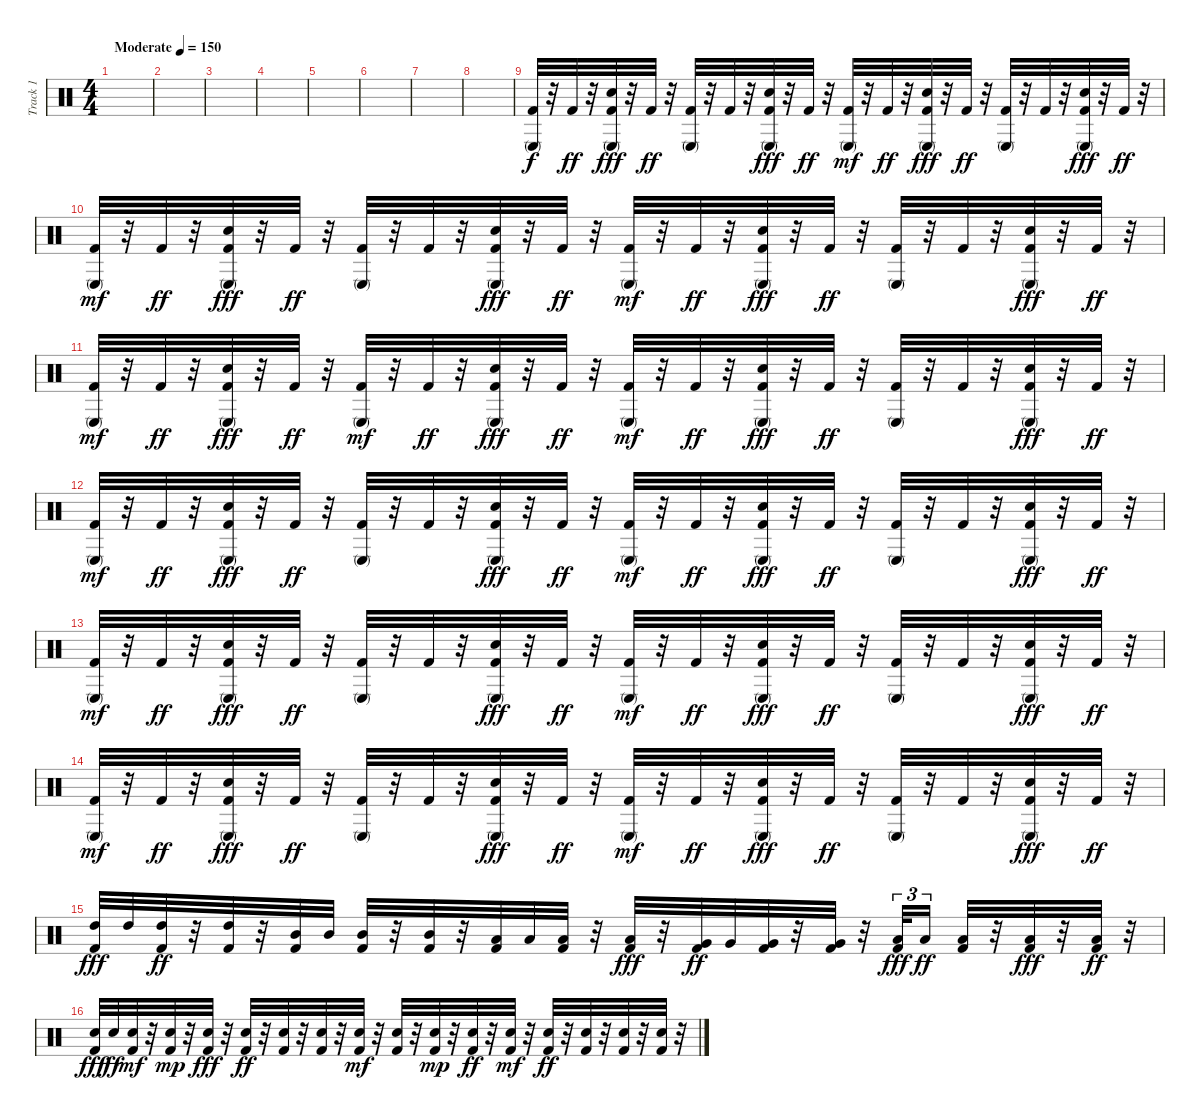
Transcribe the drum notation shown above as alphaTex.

\track ("Track 1" "Track 1") {instrument percussion}
\staff {score}
\articulation defaults
\ts (4 4)
\tempo (150 "Moderate")
\clef neutral
\ks c
|
|
|
|
|
|
|
|
("Kick (hit) 2" "Conga low (mute)").32 r.32 "Kick (hit) 2".32{dy ff} r.32 ("Kick (hit) 2" "Conga low (mute)" "Snare (hit) 2").32{dy fff} r.32 "Kick (hit) 2".32{dy ff} r.32 ("Conga low (mute)" "Kick (hit) 2").32 r.32 "Kick (hit) 2".32 r.32 ("Kick (hit) 2" "Conga low (mute)" "Snare (hit) 2").32{dy fff} r.32 "Kick (hit) 2".32{dy ff} r.32 ("Kick (hit) 2" "Conga low (mute)").32{dy mf} r.32 "Kick (hit) 2".32{dy ff} r.32 ("Kick (hit) 2" "Snare (hit) 2" "Conga low (mute)").32{dy fff} r.32 "Kick (hit) 2".32{dy ff} r.32 ("Conga low (mute)" "Kick (hit) 2").32 r.32 "Kick (hit) 2".32 r.32 ("Kick (hit) 2" "Conga low (mute)" "Snare (hit) 2").32{dy fff} r.32 "Kick (hit) 2".32{dy ff} r.32 |
("Kick (hit) 2" "Conga low (mute)").32{dy mf} r.32 "Kick (hit) 2".32{dy ff} r.32 ("Kick (hit) 2" "Snare (hit) 2" "Conga low (mute)").32{dy fff} r.32 "Kick (hit) 2".32{dy ff} r.32 ("Conga low (mute)" "Kick (hit) 2").32 r.32 "Kick (hit) 2".32 r.32 ("Kick (hit) 2" "Conga low (mute)" "Snare (hit) 2").32{dy fff} r.32 "Kick (hit) 2".32{dy ff} r.32 ("Kick (hit) 2" "Conga low (mute)").32{dy mf} r.32 "Kick (hit) 2".32{dy ff} r.32 ("Kick (hit) 2" "Snare (hit) 2" "Conga low (mute)").32{dy fff} r.32 "Kick (hit) 2".32{dy ff} r.32 ("Conga low (mute)" "Kick (hit) 2").32 r.32 "Kick (hit) 2".32 r.32 ("Kick (hit) 2" "Snare (hit) 2" "Conga low (mute)").32{dy fff} r.32 "Kick (hit) 2".32{dy ff} r.32 |
("Kick (hit) 2" "Conga low (mute)").32{dy mf} r.32 "Kick (hit) 2".32{dy ff} r.32 ("Kick (hit) 2" "Snare (hit) 2" "Conga low (mute)").32{dy fff} r.32 "Kick (hit) 2".32{dy ff} r.32 ("Kick (hit) 2" "Conga low (mute)").32{dy mf} r.32 "Kick (hit) 2".32{dy ff} r.32 ("Kick (hit) 2" "Snare (hit) 2" "Conga low (mute)").32{dy fff} r.32 "Kick (hit) 2".32{dy ff} r.32 ("Kick (hit) 2" "Conga low (mute)").32{dy mf} r.32 "Kick (hit) 2".32{dy ff} r.32 ("Snare (hit) 2" "Kick (hit) 2" "Conga low (mute)").32{dy fff} r.32 "Kick (hit) 2".32{dy ff} r.32 ("Conga low (mute)" "Kick (hit) 2").32 r.32 "Kick (hit) 2".32 r.32 ("Kick (hit) 2" "Snare (hit) 2" "Conga low (mute)").32{dy fff} r.32 "Kick (hit) 2".32{dy ff} r.32 |
("Kick (hit) 2" "Conga low (mute)").32{dy mf} r.32 "Kick (hit) 2".32{dy ff} r.32 ("Kick (hit) 2" "Conga low (mute)" "Snare (hit) 2").32{dy fff} r.32 "Kick (hit) 2".32{dy ff} r.32 ("Conga low (mute)" "Kick (hit) 2").32 r.32 "Kick (hit) 2".32 r.32 ("Kick (hit) 2" "Conga low (mute)" "Snare (hit) 2").32{dy fff} r.32 "Kick (hit) 2".32{dy ff} r.32 ("Kick (hit) 2" "Conga low (mute)").32{dy mf} r.32 "Kick (hit) 2".32{dy ff} r.32 ("Kick (hit) 2" "Snare (hit) 2" "Conga low (mute)").32{dy fff} r.32 "Kick (hit) 2".32{dy ff} r.32 ("Conga low (mute)" "Kick (hit) 2").32 r.32 "Kick (hit) 2".32 r.32 ("Kick (hit) 2" "Conga low (mute)" "Snare (hit) 2").32{dy fff} r.32 "Kick (hit) 2".32{dy ff} r.32 |
("Kick (hit) 2" "Conga low (mute)").32{dy mf} r.32 "Kick (hit) 2".32{dy ff} r.32 ("Kick (hit) 2" "Conga low (mute)" "Snare (hit) 2").32{dy fff} r.32 "Kick (hit) 2".32{dy ff} r.32 ("Conga low (mute)" "Kick (hit) 2").32 r.32 "Kick (hit) 2".32 r.32 ("Kick (hit) 2" "Conga low (mute)" "Snare (hit) 2").32{dy fff} r.32 "Kick (hit) 2".32{dy ff} r.32 ("Kick (hit) 2" "Conga low (mute)").32{dy mf} r.32 "Kick (hit) 2".32{dy ff} r.32 ("Kick (hit) 2" "Snare (hit) 2" "Conga low (mute)").32{dy fff} r.32 "Kick (hit) 2".32{dy ff} r.32 ("Conga low (mute)" "Kick (hit) 2").32 r.32 "Kick (hit) 2".32 r.32 ("Kick (hit) 2" "Conga low (mute)" "Snare (hit) 2").32{dy fff} r.32 "Kick (hit) 2".32{dy ff} r.32 |
("Kick (hit) 2" "Conga low (mute)").32{dy mf} r.32 "Kick (hit) 2".32{dy ff} r.32 ("Kick (hit) 2" "Snare (hit) 2" "Conga low (mute)").32{dy fff} r.32 "Kick (hit) 2".32{dy ff} r.32 ("Conga low (mute)" "Kick (hit) 2").32 r.32 "Kick (hit) 2".32 r.32 ("Kick (hit) 2" "Conga low (mute)" "Snare (hit) 2").32{dy fff} r.32 "Kick (hit) 2".32{dy ff} r.32 ("Kick (hit) 2" "Conga low (mute)").32{dy mf} r.32 "Kick (hit) 2".32{dy ff} r.32 ("Kick (hit) 2" "Snare (hit) 2" "Conga low (mute)").32{dy fff} r.32 "Kick (hit) 2".32{dy ff} r.32 ("Conga low (mute)" "Kick (hit) 2").32 r.32 "Kick (hit) 2".32 r.32 ("Kick (hit) 2" "Snare (hit) 2" "Conga low (mute)").32{dy fff} r.32 "Kick (hit) 2".32{dy ff} r.32 |
("Kick (hit) 2" "High Tom (hit)").32{dy fff} "High Tom (hit)".32 ("High Tom (hit)" "Kick (hit) 2").32{dy ff} r.32 ("High Tom (hit)" "Kick (hit) 2").32 r.32 ("Mid Tom (hit)" "Kick (hit) 2").32 "Mid Tom (hit)".32 ("Kick (hit) 2" "Mid Tom (hit)").32 r.32 ("Kick (hit) 2" "Mid Tom (hit)").32 r.32 ("Low Tom (hit)" "Kick (hit) 2").32 "Low Tom (hit)".32 ("Kick (hit) 2" "Low Tom (hit)").32 r.32 ("Kick (hit) 2" "Low Tom (hit)").32{dy fff} r.32 ("Very Low Tom (hit)" "Kick (hit) 2").32{dy ff} "Very Low Tom (hit)".32 ("Kick (hit) 2" "Very Low Tom (hit)").32 r.32 ("Kick (hit) 2" "Very Low Tom (hit)").32 r.32 ("Kick (hit) 2" "Low Floor Tom (hit)").32{tu (3 2) dy fff} "Low Floor Tom (hit)".16{tu (3 2) dy ff beam splitsecondary} ("Kick (hit) 2" "Low Floor Tom (hit)").32 r.32 ("Kick (hit) 2" "Low Floor Tom (hit)").32{dy fff} r.32 ("Low Floor Tom (hit)" "Kick (hit) 2").32{dy ff} r.32 |
("Kick (hit) 2" "Snare (hit) 2").32{dy fff} "Snare (hit) 2".32{dy ff} ("Kick (hit) 2" "Snare (hit) 2").32{dy mf} r.32 ("Kick (hit) 2" "Snare (hit) 2").32{dy mp} r.32 ("Kick (hit) 2" "Snare (hit) 2").32{dy fff} r.32 ("Snare (hit) 2" "Kick (hit) 2").32{dy ff} r.32 ("Kick (hit) 2" "Snare (hit) 2").32 r.32 ("Snare (hit) 2" "Kick (hit) 2").32 r.32 ("Kick (hit) 2" "Snare (hit) 2").32{dy mf} r.32 ("Kick (hit) 2" "Snare (hit) 2").32 r.32 ("Kick (hit) 2" "Snare (hit) 2").32{dy mp} r.32 ("Snare (hit) 2" "Kick (hit) 2").32{dy ff} r.32 ("Kick (hit) 2" "Snare (hit) 2").32{dy mf} r.32 ("Kick (hit) 2" "Snare (hit) 2").32{dy ff} r.32 ("Snare (hit) 2" "Kick (hit) 2").32 r.32 ("Snare (hit) 2" "Kick (hit) 2").32 r.32 ("Snare (hit) 2" "Kick (hit) 2").32 r.32
